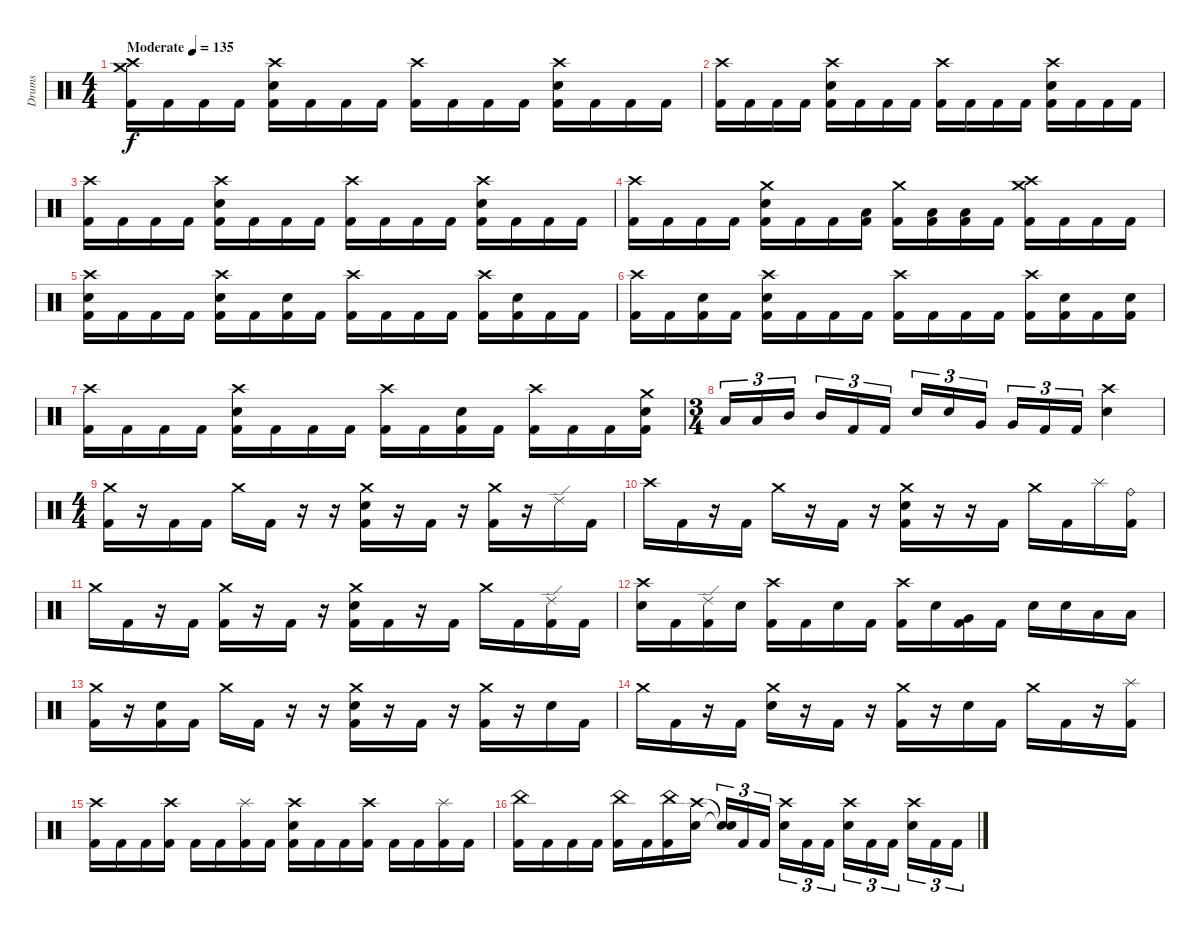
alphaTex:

\track ("Drums" "Drums") {instrument percussion}
\staff {score}
\articulation defaults
\ts (4 4)
\tempo (135 "Moderate")
\clef neutral
\ks c
("Crash high (hit)" "Crash medium (hit)" "Kick (hit) 2").16{dy f} "Kick (hit) 2".16 "Kick (hit) 2".16 "Kick (hit) 2".16 ("Crash high (hit)" "Snare (hit) 2" "Kick (hit) 2").16 "Kick (hit) 2".16 "Kick (hit) 2".16 "Kick (hit) 2".16 ("Crash high (hit)" "Kick (hit) 2").16 "Kick (hit) 2".16 "Kick (hit) 2".16 "Kick (hit) 2".16 ("Crash high (hit)" "Snare (hit) 2" "Kick (hit) 2").16 "Kick (hit) 2".16 "Kick (hit) 2".16 "Kick (hit) 2".16 |
("Crash high (hit)" "Kick (hit) 2").16 "Kick (hit) 2".16 "Kick (hit) 2".16 "Kick (hit) 2".16 ("Crash high (hit)" "Snare (hit) 2" "Kick (hit) 2").16 "Kick (hit) 2".16 "Kick (hit) 2".16 "Kick (hit) 2".16 ("Crash high (hit)" "Kick (hit) 2").16 "Kick (hit) 2".16 "Kick (hit) 2".16 "Kick (hit) 2".16 ("Crash high (hit)" "Snare (hit) 2" "Kick (hit) 2").16 "Kick (hit) 2".16 "Kick (hit) 2".16 "Kick (hit) 2".16 |
("Crash high (hit)" "Kick (hit) 2").16 "Kick (hit) 2".16 "Kick (hit) 2".16 "Kick (hit) 2".16 ("Crash high (hit)" "Snare (hit) 2" "Kick (hit) 2").16 "Kick (hit) 2".16 "Kick (hit) 2".16 "Kick (hit) 2".16 ("Crash high (hit)" "Kick (hit) 2").16 "Kick (hit) 2".16 "Kick (hit) 2".16 "Kick (hit) 2".16 ("Crash high (hit)" "Snare (hit) 2" "Kick (hit) 2").16 "Kick (hit) 2".16 "Kick (hit) 2".16 "Kick (hit) 2".16 |
("Crash high (hit)" "Kick (hit) 2").16 "Kick (hit) 2".16 "Kick (hit) 2".16 "Kick (hit) 2".16 ("Crash medium (hit)" "Snare (hit) 2" "Kick (hit) 2").16 "Kick (hit) 2".16 "Kick (hit) 2".16 ("Low Tom (hit)" "Kick (hit) 2").16 ("Crash medium (hit)" "Kick (hit) 2").16 ("Low Tom (hit)" "Kick (hit) 2").16 ("Low Tom (hit)" "Kick (hit) 2").16 "Kick (hit) 2".16 ("Crash high (hit)" "Crash medium (hit)" "Kick (hit) 2").16 "Kick (hit) 2".16 "Kick (hit) 2".16 "Kick (hit) 2".16 |
("Crash high (hit)" "Snare (hit) 2" "Kick (hit) 2").16 "Kick (hit) 2".16 "Kick (hit) 2".16 "Kick (hit) 2".16 ("Crash high (hit)" "Snare (hit) 2" "Kick (hit) 2").16 "Kick (hit) 2".16 ("Snare (hit) 2" "Kick (hit) 2").16 "Kick (hit) 2".16 ("Crash high (hit)" "Kick (hit) 2").16 "Kick (hit) 2".16 "Kick (hit) 2".16 "Kick (hit) 2".16 ("Crash high (hit)" "Kick (hit) 2").16 ("Snare (hit) 2" "Kick (hit) 2").16 "Kick (hit) 2".16 "Kick (hit) 2".16 |
("Crash high (hit)" "Kick (hit) 2").16 "Kick (hit) 2".16 ("Snare (hit) 2" "Kick (hit) 2").16 "Kick (hit) 2".16 ("Crash high (hit)" "Snare (hit) 2" "Kick (hit) 2").16 "Kick (hit) 2".16 "Kick (hit) 2".16 "Kick (hit) 2".16 ("Crash high (hit)" "Kick (hit) 2").16 "Kick (hit) 2".16 "Kick (hit) 2".16 "Kick (hit) 2".16 ("Crash high (hit)" "Kick (hit) 2").16 ("Snare (hit) 2" "Kick (hit) 2").16 "Kick (hit) 2".16 ("Snare (hit) 2" "Kick (hit) 2").16 |
("Crash high (hit)" "Kick (hit) 2").16 "Kick (hit) 2".16 "Kick (hit) 2".16 "Kick (hit) 2".16 ("Crash high (hit)" "Snare (hit) 2" "Kick (hit) 2").16 "Kick (hit) 2".16 "Kick (hit) 2".16 "Kick (hit) 2".16 ("Crash high (hit)" "Kick (hit) 2").16 "Kick (hit) 2".16 ("Snare (hit) 2" "Kick (hit) 2").16 "Kick (hit) 2".16 ("Crash high (hit)" "Kick (hit) 2").16 "Kick (hit) 2".16 "Kick (hit) 2".16 ("Crash medium (hit)" "Snare (hit) 2" "Kick (hit) 2").16 |
\ts (3 4)
"Low Tom (hit)".16{tu (3 2)} "Low Tom (hit)".16{tu (3 2)} "Mid Tom (hit)".16{tu (3 2) beam splitsecondary} "Mid Tom (hit)".16{tu (3 2)} "Kick (hit) 2".16{tu (3 2)} "Kick (hit) 2".16{tu (3 2)} "Snare (hit) 2".16{tu (3 2)} "Snare (hit) 2".16{tu (3 2)} "Very Low Tom (hit)".16{tu (3 2) beam splitsecondary} "Very Low Tom (hit)".16{tu (3 2)} "Kick (hit) 2".16{tu (3 2)} "Kick (hit) 2".16{tu (3 2)} ("Crash high (hit)" "Snare (hit) 2").4 |
\ts (4 4)
("Crash medium (hit)" "Kick (hit) 2").16 r.16 "Kick (hit) 2".16 "Kick (hit) 2".16 "Crash medium (hit)".16 "Kick (hit) 2".16 r.16 r.16 ("Crash medium (hit)" "Snare (hit) 2" "Kick (hit) 2").16 r.16 "Kick (hit) 2".16 r.16 ("Crash medium (hit)" "Kick (hit) 2").16 r.16 "Ride (edge) 2".16 "Kick (hit) 2".16 |
"Crash high (hit)".16 "Kick (hit) 2".16 r.16 "Kick (hit) 2".16 "Crash medium (hit)".16 r.16 "Kick (hit) 2".16 r.16 ("Crash medium (hit)" "Snare (hit) 2" "Kick (hit) 2").16 r.16 r.16 "Kick (hit) 2".16 "Crash medium (hit)".16 "Kick (hit) 2".16 "Splash (hit)".16 ("Ride (bell)" "Kick (hit) 2").16 |
"Crash medium (hit)".16 "Kick (hit) 2".16 r.16 "Kick (hit) 2".16 ("Crash medium (hit)" "Kick (hit) 2").16 r.16 "Kick (hit) 2".16 r.16 ("Crash medium (hit)" "Snare (hit) 2" "Kick (hit) 2").16 "Kick (hit) 2".16 r.16 "Kick (hit) 2".16 "Crash medium (hit)".16 "Kick (hit) 2".16 ("Ride (edge) 2" "Kick (hit) 2").16 "Kick (hit) 2".16 |
("Crash high (hit)" "Snare (hit) 2").16 "Kick (hit) 2".16 ("Ride (edge) 2" "Kick (hit) 2").16 "Snare (hit) 2".16 ("Crash high (hit)" "Kick (hit) 2").16 "Kick (hit) 2".16 "Snare (hit) 2".16 "Kick (hit) 2".16 ("Crash high (hit)" "Kick (hit) 2").16 "Snare (hit) 2".16 ("Very Low Tom (hit)" "Kick (hit) 2").16 "Kick (hit) 2".16 "Snare (hit) 2".16 "Snare (hit) 2".16 "Low Floor Tom (hit)".16 "Low Floor Tom (hit)".16 |
("Crash medium (hit)" "Kick (hit) 2").16 r.16 ("Snare (hit) 2" "Kick (hit) 2").16 "Kick (hit) 2".16 "Crash medium (hit)".16 "Kick (hit) 2".16 r.16 r.16 ("Crash medium (hit)" "Snare (hit) 2" "Kick (hit) 2").16 r.16 "Kick (hit) 2".16 r.16 ("Crash medium (hit)" "Kick (hit) 2").16 r.16 "Snare (hit) 2".16 "Kick (hit) 2".16 |
"Crash medium (hit)".16 "Kick (hit) 2".16 r.16 "Kick (hit) 2".16 ("Crash medium (hit)" "Snare (hit) 2").16 r.16 "Kick (hit) 2".16 r.16 ("Crash medium (hit)" "Kick (hit) 2").16 r.16 "Snare (hit) 2".16 "Kick (hit) 2".16 "Crash medium (hit)".16 "Kick (hit) 2".16 r.16 ("Splash (hit)" "Kick (hit) 2").16 |
("Crash high (hit)" "Kick (hit) 2").16 "Kick (hit) 2".16 "Kick (hit) 2".16 ("Crash high (hit)" "Kick (hit) 2").16 "Kick (hit) 2".16 "Kick (hit) 2".16 ("Splash (hit)" "Kick (hit) 2").16 "Kick (hit) 2".16 ("Crash high (hit)" "Snare (hit) 2" "Kick (hit) 2").16 "Kick (hit) 2".16 "Kick (hit) 2".16 ("Crash high (hit)" "Kick (hit) 2").16 "Kick (hit) 2".16 "Kick (hit) 2".16 ("Splash (hit)" "Kick (hit) 2").16 "Kick (hit) 2".16 |
("China (hit)" "Kick (hit) 2").16 "Kick (hit) 2".16 "Kick (hit) 2".16 "Kick (hit) 2".16 ("China (hit)" "Kick (hit) 2").16 "Kick (hit) 2".16 ("China (hit)" "Kick (hit) 2").16 ("Crash high (hit)" "Snare (hit) 2").16 ("Snare (hit)"{t} "Snare (hit)"{t}).16{tu (3 2)} "Kick (hit) 2".16{tu (3 2)} "Kick (hit) 2".16{tu (3 2) beam splitsecondary} ("Crash high (hit)" "Snare (hit) 2").16{tu (3 2)} "Kick (hit) 2".16{tu (3 2)} "Kick (hit) 2".16{tu (3 2)} ("Crash high (hit)" "Snare (hit) 2").16{tu (3 2)} "Kick (hit) 2".16{tu (3 2)} "Kick (hit) 2".16{tu (3 2) beam splitsecondary} ("Crash high (hit)" "Snare (hit) 2").16{tu (3 2)} "Kick (hit) 2".16{tu (3 2)} "Kick (hit) 2".16{tu (3 2)}
